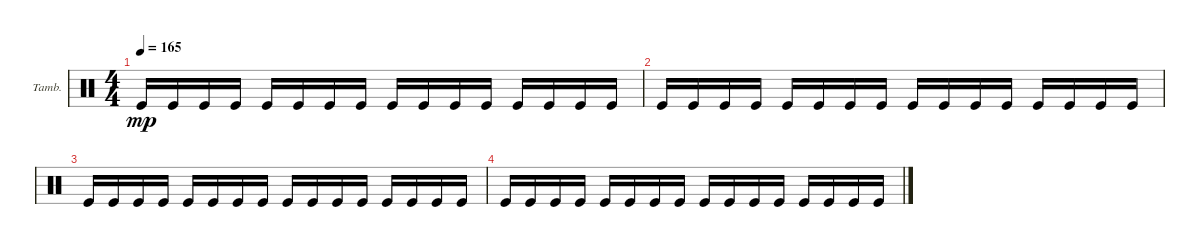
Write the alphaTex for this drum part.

\defaultSystemsLayout 4
\bracketExtendMode groupsimilarinstruments
\firstSystemTrackNameOrientation horizontal
\otherSystemsTrackNameOrientation horizontal
\track ("Tambourine" "Tamb.") {instrument percussion}
\staff {score}
\articulation defaults
\ts (4 4)
\tempo 165
\clef neutral
\ks c "Kick (hit)".16{dy mp} "Kick (hit)".16 "Kick (hit)".16 "Kick (hit)".16 "Kick (hit)".16 "Kick (hit)".16 "Kick (hit)".16 "Kick (hit)".16 "Kick (hit)".16 "Kick (hit)".16 "Kick (hit)".16 "Kick (hit)".16 "Kick (hit)".16 "Kick (hit)".16 "Kick (hit)".16 "Kick (hit)".16
|
"Kick (hit)".16 "Kick (hit)".16 "Kick (hit)".16 "Kick (hit)".16 "Kick (hit)".16 "Kick (hit)".16 "Kick (hit)".16 "Kick (hit)".16 "Kick (hit)".16 "Kick (hit)".16 "Kick (hit)".16 "Kick (hit)".16 "Kick (hit)".16 "Kick (hit)".16 "Kick (hit)".16 "Kick (hit)".16 |
"Kick (hit)".16 "Kick (hit)".16 "Kick (hit)".16 "Kick (hit)".16 "Kick (hit)".16 "Kick (hit)".16 "Kick (hit)".16 "Kick (hit)".16 "Kick (hit)".16 "Kick (hit)".16 "Kick (hit)".16 "Kick (hit)".16 "Kick (hit)".16 "Kick (hit)".16 "Kick (hit)".16 "Kick (hit)".16 |
"Kick (hit)".16 "Kick (hit)".16 "Kick (hit)".16 "Kick (hit)".16 "Kick (hit)".16 "Kick (hit)".16 "Kick (hit)".16 "Kick (hit)".16 "Kick (hit)".16 "Kick (hit)".16 "Kick (hit)".16 "Kick (hit)".16 "Kick (hit)".16 "Kick (hit)".16 "Kick (hit)".16 "Kick (hit)".16
